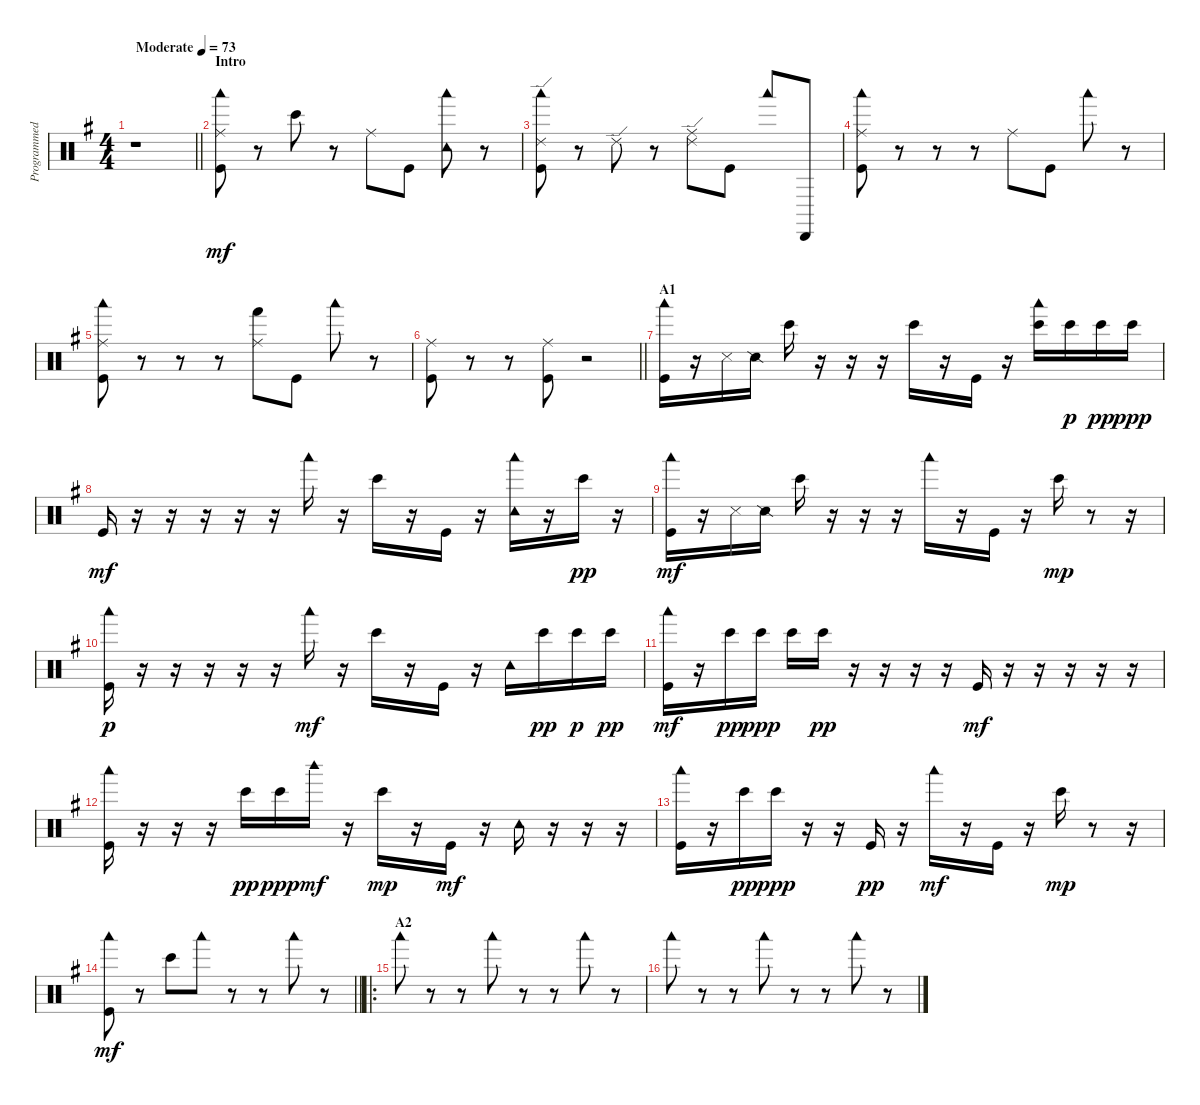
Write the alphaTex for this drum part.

\track ("Programmed Drums" "Programmed") {instrument percussion}
\staff {score}
\articulation defaults
\ts (4 4)
\tempo (73 "Moderate")
\clef neutral
\barLineRight lightlight
\ks g
r.1{dy mf} |
\section ("" "Intro")
("Ride (middle)" "Woodblock low (hit)" "Kick (hit)").8 r.8 "Bongo High (hit)".8 r.8 "Ride (middle)".8 "Kick (hit)".8 ("Tambourine (hit)" "Woodblock low (hit)").8 r.8 |
("Ride (edge) 2" "Woodblock low (hit)" "Kick (hit)").8 r.8 "Ride (edge) 2".8 r.8 ("Ride (edge) 2" "Ride (middle)").8 "Kick (hit)".8 "Woodblock low (hit)".8 "Cabasa (hit)".8 |
("Ride (middle)" "Woodblock low (hit)" "Kick (hit)").8 r.8 r.8 r.8 "Ride (middle)".8 "Kick (hit)".8 "Woodblock low (hit)".8 r.8 |
("Ride (middle)" "Woodblock low (hit)" "Kick (hit)").8 r.8 r.8 r.8 ("Ride (middle)" "Hand (hit)").8 "Kick (hit)".8 "Woodblock low (hit)".8 r.8 |
\barLineRight lightlight
("Ride (middle)" "Kick (hit)").8 r.8 r.8 ("Ride (middle)" "Kick (hit)").8 r.2 |
\section ("" "A1")
("Woodblock low (hit)" "Kick (hit)").16 r.16 "Metronome (hit)".16 "Snare (side stick) 2".16 "Bongo High (hit)".16 r.16 r.16 r.16 "Bongo High (hit)".16 r.16 "Kick (hit)".16 r.16 ("Bongo High (hit)" "Woodblock low (hit)").16 "Bongo High (hit)".16{dy p} "Bongo High (hit)".16{dy pp} "Bongo High (hit)".16{dy ppp} |
"Kick (hit)".16{dy mf} r.16 r.16 r.16 r.16 r.16 "Woodblock low (hit)".16 r.16 "Bongo High (hit)".16 r.16 "Kick (hit)".16 r.16 ("Tambourine (hit)" "Woodblock low (hit)").16 r.16 "Bongo High (hit)".16{dy pp} r.16 |
("Woodblock low (hit)" "Kick (hit)").16{dy mf} r.16 "Metronome (hit)".16 "Snare (side stick) 2".16 "Bongo High (hit)".16 r.16 r.16 r.16 "Woodblock low (hit)".16 r.16 "Kick (hit)".16 r.16 "Bongo High (hit)".16{dy mp} r.8 r.16 |
("Woodblock low (hit)" "Kick (hit)").16{dy p} r.16 r.16 r.16 r.16 r.16 "Woodblock low (hit)".16{dy mf} r.16 "Bongo High (hit)".16 r.16 "Kick (hit)".16 r.16 "Tambourine (hit)".16 "Bongo High (hit)".16{dy pp} "Bongo High (hit)".16{dy p} "Bongo High (hit)".16{dy pp} |
("Woodblock low (hit)" "Kick (hit)").16{dy mf} r.16 "Bongo High (hit)".16{dy pp} "Bongo High (hit)".16{dy ppp} "Bongo High (hit)".16 "Bongo High (hit)".16{dy pp} r.16 r.16 r.16 r.16 "Kick (hit)".16{dy mf} r.16 r.16 r.16 r.16 r.16 |
("Woodblock low (hit)" "Kick (hit)").16 r.16 r.16 r.16 "Bongo High (hit)".16{dy pp} "Bongo High (hit)".16{dy ppp} "Woodblock high (hit)".16{dy mf} r.16 "Bongo High (hit)".16{dy mp} r.16 "Kick (hit)".16{dy mf} r.16 "Tambourine (hit)".16 r.16 r.16 r.16 |
("Woodblock low (hit)" "Kick (hit)").16 r.16 "Bongo High (hit)".16{dy pp} "Bongo High (hit)".16{dy ppp} r.16 r.16 "Kick (hit)".16{dy pp} r.16 "Woodblock low (hit)".16{dy mf} r.16 "Kick (hit)".16 r.16 "Bongo High (hit)".16{dy mp} r.8 r.16 |
\barLineRight lightlight
("Woodblock low (hit)" "Kick (hit)").8{dy mf} r.8 "Bongo High (hit)".8 "Woodblock low (hit)".8 r.8 r.8 "Woodblock low (hit)".8 r.8 |
\ro
\section ("" "A2")
"Woodblock low (hit)".8 r.8 r.8 "Woodblock low (hit)".8 r.8 r.8 "Woodblock low (hit)".8 r.8 |
"Woodblock low (hit)".8 r.8 r.8 "Woodblock low (hit)".8 r.8 r.8 "Woodblock low (hit)".8 r.8
